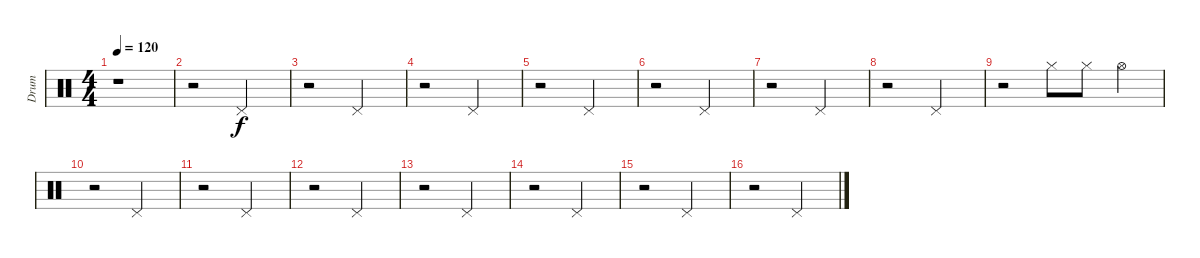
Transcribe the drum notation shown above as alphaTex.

\track ("Drum" "Drum") {instrument percussion}
\staff {score}
\articulation defaults
\ts (4 4)
\tempo 120
\clef neutral
\ks c
r.1{dy f} |
r.2 "Pedal Hi-Hat (hit)".2 |
r.2 "Pedal Hi-Hat (hit)".2 |
r.2 "Pedal Hi-Hat (hit)".2 |
r.2 "Pedal Hi-Hat (hit)".2 |
r.2 "Pedal Hi-Hat (hit)".2 |
r.2 "Pedal Hi-Hat (hit)".2 |
r.2 "Pedal Hi-Hat (hit)".2 |
r.2 "Hi-Hat (closed)".8 "Hi-Hat (closed)".8 "Hi-Hat (open)".4 |
r.2 "Pedal Hi-Hat (hit)".2 |
r.2 "Pedal Hi-Hat (hit)".2 |
r.2 "Pedal Hi-Hat (hit)".2 |
r.2 "Pedal Hi-Hat (hit)".2 |
r.2 "Pedal Hi-Hat (hit)".2 |
r.2 "Pedal Hi-Hat (hit)".2 |
r.2 "Pedal Hi-Hat (hit)".2
